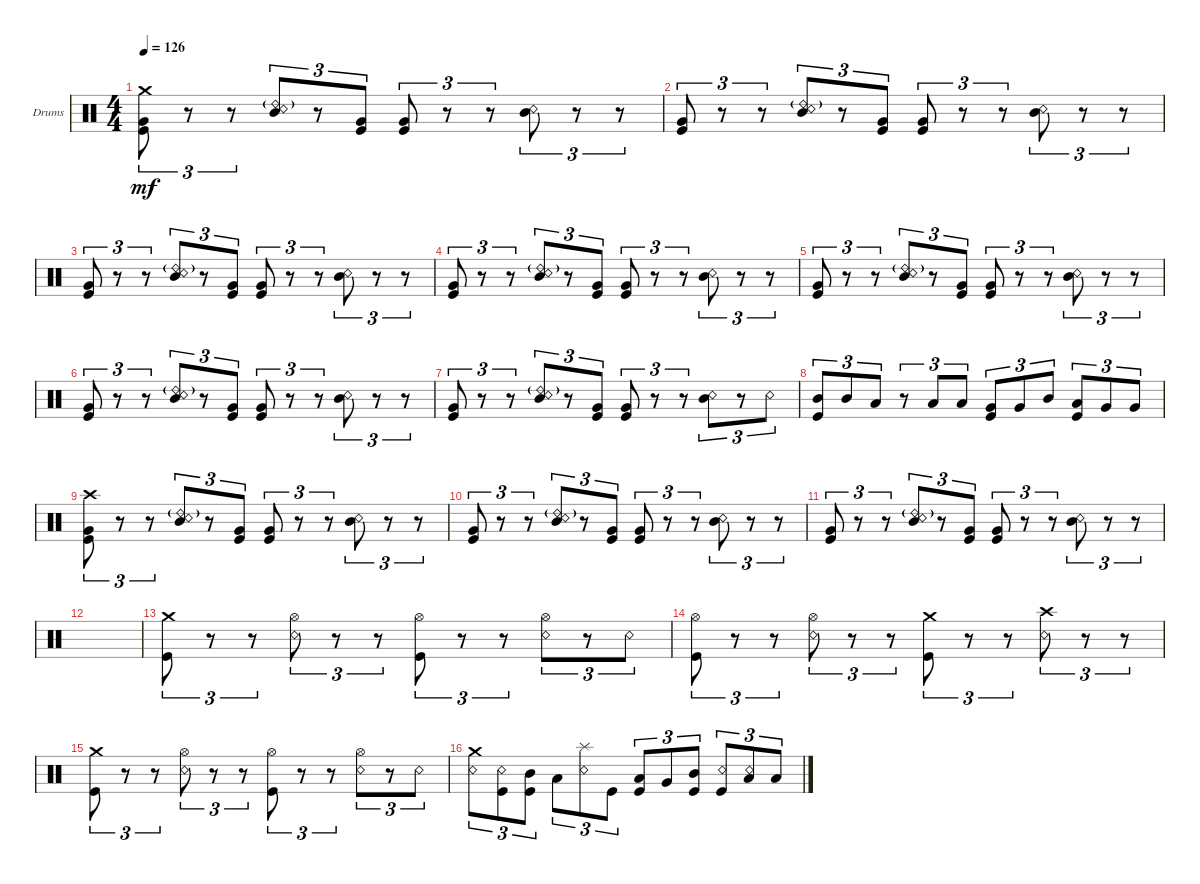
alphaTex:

\defaultSystemsLayout 4
\bracketExtendMode groupsimilarinstruments
\firstSystemTrackNameOrientation horizontal
\otherSystemsTrackNameOrientation horizontal
\track ("Dominic Howard" "Drums") {instrument percussion}
\staff {score}
\articulation defaults
\ts (4 4)
\tempo 126
\clef neutral
\ks c
("Kick (hit)" "Very Low Tom (hit)" "Crash medium (hit)").8{tu (3 2) dy mf} r.8{tu (3 2)} r.8{tu (3 2)} ("Snare (rim shot)" "Mid Tom (hit)" "Ride (bell) 2"{g}).8{tu (3 2)} r.8{tu (3 2)} ("Kick (hit)" "Very Low Tom (hit)").8{tu (3 2)} ("Kick (hit)" "Very Low Tom (hit)").8{tu (3 2)} r.8{tu (3 2)} r.8{tu (3 2)} ("Snare (rim shot)" "Mid Tom (hit)").8{tu (3 2)} r.8{tu (3 2)} r.8{tu (3 2)} |
("Kick (hit)" "Very Low Tom (hit)").8{tu (3 2)} r.8{tu (3 2)} r.8{tu (3 2)} ("Snare (rim shot)" "Mid Tom (hit)" "Ride (bell) 2"{g}).8{tu (3 2)} r.8{tu (3 2)} ("Kick (hit)" "Very Low Tom (hit)").8{tu (3 2)} ("Kick (hit)" "Very Low Tom (hit)").8{tu (3 2)} r.8{tu (3 2)} r.8{tu (3 2)} ("Snare (rim shot)" "Mid Tom (hit)").8{tu (3 2)} r.8{tu (3 2)} r.8{tu (3 2)} |
("Kick (hit)" "Very Low Tom (hit)").8{tu (3 2)} r.8{tu (3 2)} r.8{tu (3 2)} ("Snare (rim shot)" "Mid Tom (hit)" "Ride (bell) 2"{g}).8{tu (3 2)} r.8{tu (3 2)} ("Kick (hit)" "Very Low Tom (hit)").8{tu (3 2)} ("Kick (hit)" "Very Low Tom (hit)").8{tu (3 2)} r.8{tu (3 2)} r.8{tu (3 2)} ("Snare (rim shot)" "Mid Tom (hit)").8{tu (3 2)} r.8{tu (3 2)} r.8{tu (3 2)} |
("Kick (hit)" "Very Low Tom (hit)").8{tu (3 2)} r.8{tu (3 2)} r.8{tu (3 2)} ("Snare (rim shot)" "Mid Tom (hit)" "Ride (bell) 2"{g}).8{tu (3 2)} r.8{tu (3 2)} ("Kick (hit)" "Very Low Tom (hit)").8{tu (3 2)} ("Kick (hit)" "Very Low Tom (hit)").8{tu (3 2)} r.8{tu (3 2)} r.8{tu (3 2)} ("Snare (rim shot)" "Mid Tom (hit)").8{tu (3 2)} r.8{tu (3 2)} r.8{tu (3 2)} |
("Kick (hit)" "Very Low Tom (hit)").8{tu (3 2)} r.8{tu (3 2)} r.8{tu (3 2)} ("Snare (rim shot)" "Mid Tom (hit)" "Ride (bell) 2"{g}).8{tu (3 2)} r.8{tu (3 2)} ("Kick (hit)" "Very Low Tom (hit)").8{tu (3 2)} ("Kick (hit)" "Very Low Tom (hit)").8{tu (3 2)} r.8{tu (3 2)} r.8{tu (3 2)} ("Snare (rim shot)" "Mid Tom (hit)").8{tu (3 2)} r.8{tu (3 2)} r.8{tu (3 2)} |
("Kick (hit)" "Very Low Tom (hit)").8{tu (3 2)} r.8{tu (3 2)} r.8{tu (3 2)} ("Snare (rim shot)" "Mid Tom (hit)" "Ride (bell) 2"{g}).8{tu (3 2)} r.8{tu (3 2)} ("Kick (hit)" "Very Low Tom (hit)").8{tu (3 2)} ("Kick (hit)" "Very Low Tom (hit)").8{tu (3 2)} r.8{tu (3 2)} r.8{tu (3 2)} ("Snare (rim shot)" "Mid Tom (hit)").8{tu (3 2)} r.8{tu (3 2)} r.8{tu (3 2)} |
("Kick (hit)" "Very Low Tom (hit)").8{tu (3 2)} r.8{tu (3 2)} r.8{tu (3 2)} ("Snare (rim shot)" "Mid Tom (hit)" "Ride (bell) 2"{g}).8{tu (3 2)} r.8{tu (3 2)} ("Kick (hit)" "Very Low Tom (hit)").8{tu (3 2)} ("Kick (hit)" "Very Low Tom (hit)").8{tu (3 2)} r.8{tu (3 2)} r.8{tu (3 2)} ("Snare (rim shot)" "Mid Tom (hit)").8{tu (3 2)} r.8{tu (3 2)} "Snare (rim shot)".8{tu (3 2)} |
("Mid Tom (hit)" "Kick (hit)").8{tu (3 2)} "Mid Tom (hit)".8{tu (3 2)} "Low Tom (hit)".8{tu (3 2)} r.8{tu (3 2)} "Low Tom (hit)".8{tu (3 2)} "Low Tom (hit)".8{tu (3 2)} ("Very Low Tom (hit)" "Kick (hit)").8{tu (3 2)} "Very Low Tom (hit)".8{tu (3 2)} "Mid Tom (hit)".8{tu (3 2)} ("Low Tom (hit)" "Kick (hit)").8{tu (3 2)} "Very Low Tom (hit)".8{tu (3 2)} "Very Low Tom (hit)".8{tu (3 2)} |
("Kick (hit)" "Very Low Tom (hit)" "Crash high (hit)").8{tu (3 2)} r.8{tu (3 2)} r.8{tu (3 2)} ("Snare (rim shot)" "Mid Tom (hit)" "Ride (bell) 2"{g}).8{tu (3 2)} r.8{tu (3 2)} ("Kick (hit)" "Very Low Tom (hit)").8{tu (3 2)} ("Kick (hit)" "Very Low Tom (hit)").8{tu (3 2)} r.8{tu (3 2)} r.8{tu (3 2)} ("Snare (rim shot)" "Mid Tom (hit)").8{tu (3 2)} r.8{tu (3 2)} r.8{tu (3 2)} |
("Kick (hit)" "Very Low Tom (hit)").8{tu (3 2)} r.8{tu (3 2)} r.8{tu (3 2)} ("Snare (rim shot)" "Mid Tom (hit)" "Ride (bell) 2"{g}).8{tu (3 2)} r.8{tu (3 2)} ("Kick (hit)" "Very Low Tom (hit)").8{tu (3 2)} ("Kick (hit)" "Very Low Tom (hit)").8{tu (3 2)} r.8{tu (3 2)} r.8{tu (3 2)} ("Snare (rim shot)" "Mid Tom (hit)").8{tu (3 2)} r.8{tu (3 2)} r.8{tu (3 2)} |
("Kick (hit)" "Very Low Tom (hit)").8{tu (3 2)} r.8{tu (3 2)} r.8{tu (3 2)} ("Snare (rim shot)" "Mid Tom (hit)" "Ride (bell) 2"{g}).8{tu (3 2)} r.8{tu (3 2)} ("Kick (hit)" "Very Low Tom (hit)").8{tu (3 2)} ("Kick (hit)" "Very Low Tom (hit)").8{tu (3 2)} r.8{tu (3 2)} r.8{tu (3 2)} ("Snare (rim shot)" "Mid Tom (hit)").8{tu (3 2)} r.8{tu (3 2)} r.8{tu (3 2)} |
|
("Kick (hit)" "Crash medium (hit)").8{tu (3 2)} r.8{tu (3 2)} r.8{tu (3 2)} ("Snare (rim shot)" "Hi-Hat (open)").8{tu (3 2)} r.8{tu (3 2)} r.8{tu (3 2)} ("Kick (hit)" "Hi-Hat (open)").8{tu (3 2)} r.8{tu (3 2)} r.8{tu (3 2)} ("Snare (rim shot)" "Hi-Hat (open)").8{tu (3 2)} r.8{tu (3 2)} "Snare (rim shot)".8{tu (3 2)} |
("Kick (hit)" "Hi-Hat (open)").8{tu (3 2)} r.8{tu (3 2)} r.8{tu (3 2)} ("Snare (rim shot)" "Hi-Hat (open)").8{tu (3 2)} r.8{tu (3 2)} r.8{tu (3 2)} ("Kick (hit)" "Crash medium (hit)").8{tu (3 2)} r.8{tu (3 2)} r.8{tu (3 2)} ("Snare (rim shot)" "Crash high (hit)").8{tu (3 2)} r.8{tu (3 2)} r.8{tu (3 2)} |
("Kick (hit)" "Crash medium (hit)").8{tu (3 2)} r.8{tu (3 2)} r.8{tu (3 2)} ("Snare (rim shot)" "Hi-Hat (open)").8{tu (3 2)} r.8{tu (3 2)} r.8{tu (3 2)} ("Kick (hit)" "Hi-Hat (open)").8{tu (3 2)} r.8{tu (3 2)} r.8{tu (3 2)} ("Snare (rim shot)" "Hi-Hat (open)").8{tu (3 2)} r.8{tu (3 2)} "Snare (rim shot)".8{tu (3 2)} |
("Snare (rim shot)" "Crash medium (hit)").8{tu (3 2)} ("Snare (rim shot)" "Kick (hit)").8{tu (3 2)} ("Mid Tom (hit)" "Kick (hit)").8{tu (3 2)} "Low Tom (hit)".8{tu (3 2)} ("Snare (rim shot)" "Splash (hit)").8{tu (3 2)} "Kick (hit)".8{tu (3 2)} ("Low Tom (hit)" "Kick (hit)").8{tu (3 2)} "Very Low Tom (hit)".8{tu (3 2)} ("Mid Tom (hit)" "Kick (hit)").8{tu (3 2)} ("Snare (rim shot)" "Kick (hit)").8{tu (3 2)} ("Snare (rim shot)" "Low Tom (hit)").8{tu (3 2)} "Low Tom (hit)".8{tu (3 2)}
